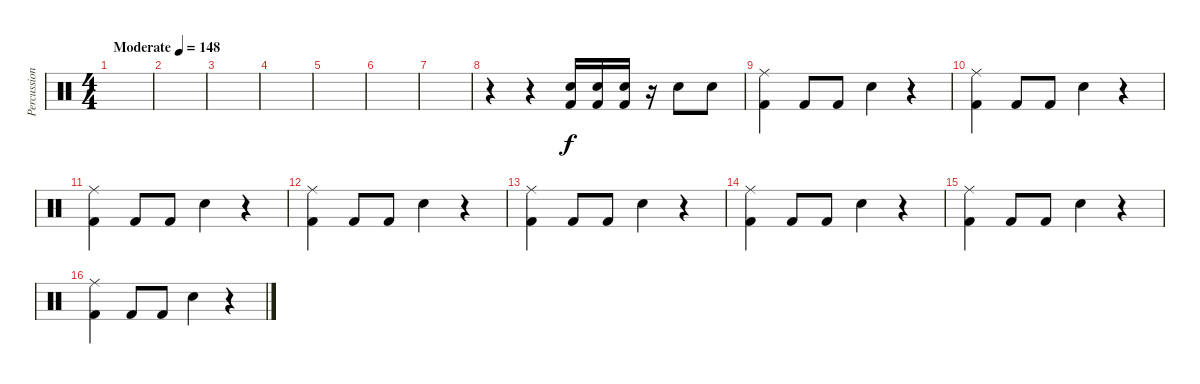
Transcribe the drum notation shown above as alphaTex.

\track ("Percussion" "Percussion") {instrument percussion}
\staff {score}
\articulation defaults
\ts (4 4)
\tempo (148 "Moderate")
\clef neutral
\ks c
|
|
|
|
|
|
|
r.4 r.4 ("Electric Snare (hit)" "Kick (hit) 2").16 ("Electric Snare (hit)" "Kick (hit) 2").16 ("Electric Snare (hit)" "Kick (hit) 2").16 r.16 "Electric Snare (hit)".8 "Electric Snare (hit)".8 |
("Kick (hit) 2" "Ride (middle)").4 "Kick (hit) 2".8 "Kick (hit) 2".8 "Electric Snare (hit)".4 r.4 |
("Kick (hit) 2" "Ride (middle)").4 "Kick (hit) 2".8 "Kick (hit) 2".8 "Electric Snare (hit)".4 r.4 |
("Kick (hit) 2" "Ride (middle)").4 "Kick (hit) 2".8 "Kick (hit) 2".8 "Electric Snare (hit)".4 r.4 |
("Kick (hit) 2" "Ride (middle)").4 "Kick (hit) 2".8 "Kick (hit) 2".8 "Electric Snare (hit)".4 r.4 |
("Kick (hit) 2" "Ride (middle)").4 "Kick (hit) 2".8 "Kick (hit) 2".8 "Electric Snare (hit)".4 r.4 |
("Kick (hit) 2" "Ride (middle)").4 "Kick (hit) 2".8 "Kick (hit) 2".8 "Electric Snare (hit)".4 r.4 |
("Kick (hit) 2" "Ride (middle)").4 "Kick (hit) 2".8 "Kick (hit) 2".8 "Electric Snare (hit)".4 r.4 |
("Kick (hit) 2" "Ride (middle)").4 "Kick (hit) 2".8 "Kick (hit) 2".8 "Electric Snare (hit)".4 r.4
